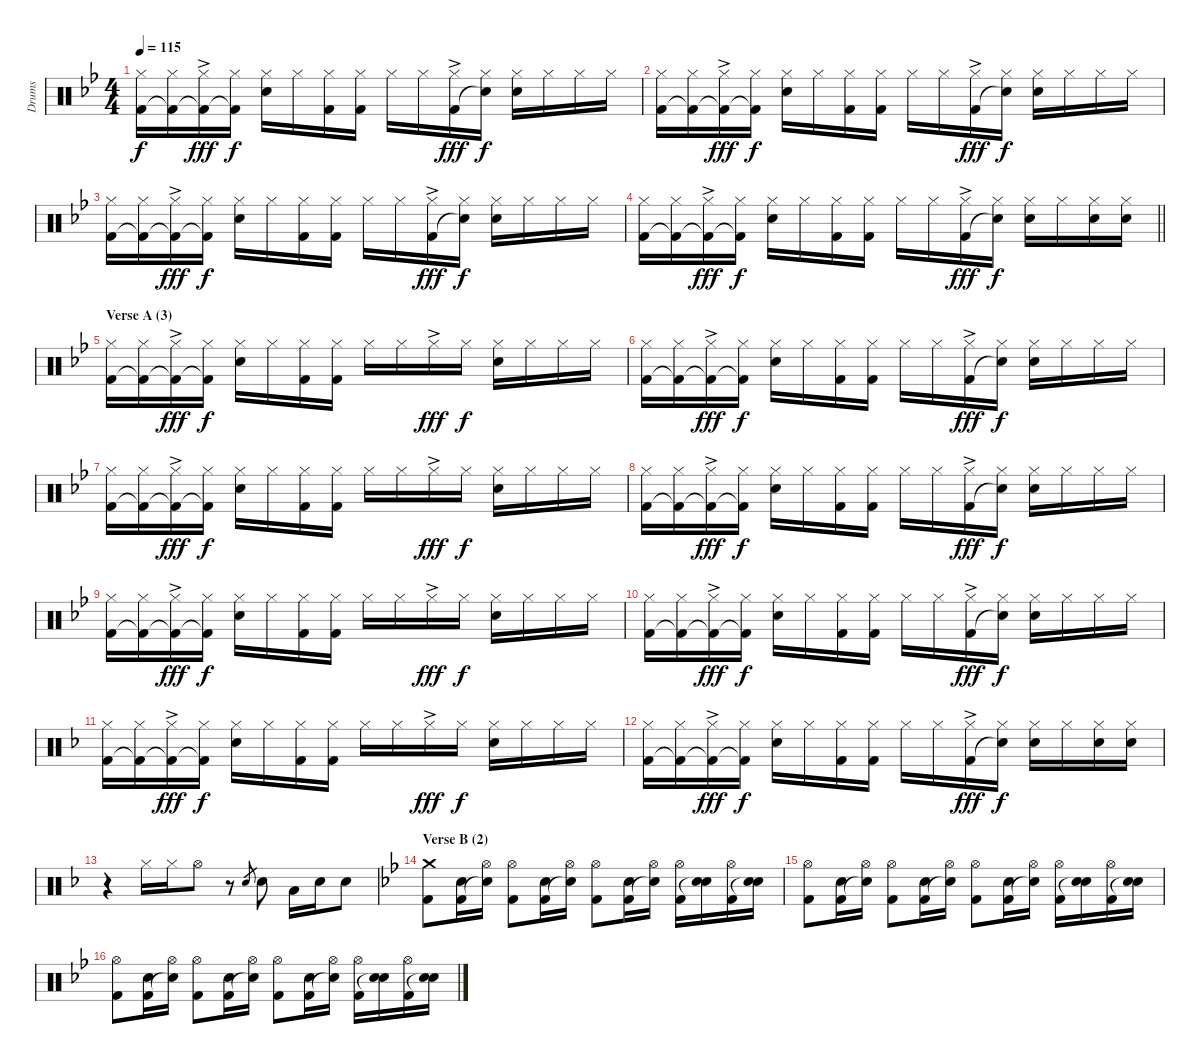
\track ("Drums" "Drums") {instrument percussion}
\staff {score}
\articulation defaults
\ts (4 4)
\tempo 115
\clef neutral
\ks bb
("Hi-Hat (closed)" "Kick (hit) 2").16{dy f} ("Hi-Hat (closed)" "Kick (hit) 2"{t}).16 ("Hi-Hat (closed)"{ac} "Kick (hit) 2"{t}).16{dy fff} ("Hi-Hat (closed)" "Kick (hit) 2"{t}).16{dy f} ("Hi-Hat (closed)" "Electric Snare (hit)").16 "Hi-Hat (closed)".16 ("Hi-Hat (closed)" "Kick (hit) 2").16 ("Hi-Hat (closed)" "Kick (hit) 2").16 "Hi-Hat (closed)".16 "Hi-Hat (closed)".16 ("Hi-Hat (closed)"{ac} "Kick (hit) 2").16{dy fff} ("Hi-Hat (closed)" "Snare (hit)"{t}).16{dy f} ("Hi-Hat (closed)" "Electric Snare (hit)").16 "Hi-Hat (closed)".16 "Hi-Hat (closed)".16 "Hi-Hat (closed)".16 |
("Hi-Hat (closed)" "Kick (hit) 2").16 ("Hi-Hat (closed)" "Kick (hit) 2"{t}).16 ("Hi-Hat (closed)"{ac} "Kick (hit) 2"{t}).16{dy fff} ("Hi-Hat (closed)" "Kick (hit) 2"{t}).16{dy f} ("Hi-Hat (closed)" "Electric Snare (hit)").16 "Hi-Hat (closed)".16 ("Hi-Hat (closed)" "Kick (hit) 2").16 ("Hi-Hat (closed)" "Kick (hit) 2").16 "Hi-Hat (closed)".16 "Hi-Hat (closed)".16 ("Hi-Hat (closed)"{ac} "Kick (hit) 2").16{dy fff} ("Hi-Hat (closed)" "Snare (hit)"{t}).16{dy f} ("Hi-Hat (closed)" "Electric Snare (hit)").16 "Hi-Hat (closed)".16 "Hi-Hat (closed)".16 "Hi-Hat (closed)".16 |
("Hi-Hat (closed)" "Kick (hit) 2").16 ("Hi-Hat (closed)" "Kick (hit) 2"{t}).16 ("Hi-Hat (closed)"{ac} "Kick (hit) 2"{t}).16{dy fff} ("Hi-Hat (closed)" "Kick (hit) 2"{t}).16{dy f} ("Hi-Hat (closed)" "Electric Snare (hit)").16 "Hi-Hat (closed)".16 ("Hi-Hat (closed)" "Kick (hit) 2").16 ("Hi-Hat (closed)" "Kick (hit) 2").16 "Hi-Hat (closed)".16 "Hi-Hat (closed)".16 ("Hi-Hat (closed)"{ac} "Kick (hit) 2").16{dy fff} ("Hi-Hat (closed)" "Snare (hit)"{t}).16{dy f} ("Hi-Hat (closed)" "Electric Snare (hit)").16 "Hi-Hat (closed)".16 "Hi-Hat (closed)".16 "Hi-Hat (closed)".16 |
\barLineRight lightlight
("Hi-Hat (closed)" "Kick (hit) 2").16 ("Hi-Hat (closed)" "Kick (hit) 2"{t}).16 ("Hi-Hat (closed)"{ac} "Kick (hit) 2"{t}).16{dy fff} ("Hi-Hat (closed)" "Kick (hit) 2"{t}).16{dy f} ("Hi-Hat (closed)" "Electric Snare (hit)").16 "Hi-Hat (closed)".16 ("Hi-Hat (closed)" "Kick (hit) 2").16 ("Hi-Hat (closed)" "Kick (hit) 2").16 "Hi-Hat (closed)".16 "Hi-Hat (closed)".16 ("Hi-Hat (closed)"{ac} "Kick (hit) 2").16{dy fff} ("Hi-Hat (closed)" "Snare (hit)"{t}).16{dy f} ("Hi-Hat (closed)" "Electric Snare (hit)").16 "Hi-Hat (closed)".16 ("Hi-Hat (closed)" "Electric Snare (hit)").16 ("Hi-Hat (closed)" "Electric Snare (hit)").16 |
\section ("" "Verse A (3)")
("Hi-Hat (closed)" "Kick (hit) 2").16 ("Hi-Hat (closed)" "Kick (hit) 2"{t}).16 ("Hi-Hat (closed)"{ac} "Kick (hit) 2"{t}).16{dy fff} ("Hi-Hat (closed)" "Kick (hit) 2"{t}).16{dy f} ("Hi-Hat (closed)" "Electric Snare (hit)").16 "Hi-Hat (closed)".16 ("Hi-Hat (closed)" "Kick (hit) 2").16 ("Hi-Hat (closed)" "Kick (hit) 2").16 "Hi-Hat (closed)".16 "Hi-Hat (closed)".16 "Hi-Hat (closed)"{ac}.16{dy fff} "Hi-Hat (closed)".16{dy f} ("Hi-Hat (closed)" "Electric Snare (hit)").16 "Hi-Hat (closed)".16 "Hi-Hat (closed)".16 "Hi-Hat (closed)".16 |
("Hi-Hat (closed)" "Kick (hit) 2").16 ("Hi-Hat (closed)" "Kick (hit) 2"{t}).16 ("Hi-Hat (closed)"{ac} "Kick (hit) 2"{t}).16{dy fff} ("Hi-Hat (closed)" "Kick (hit) 2"{t}).16{dy f} ("Hi-Hat (closed)" "Electric Snare (hit)").16 "Hi-Hat (closed)".16 ("Hi-Hat (closed)" "Kick (hit) 2").16 ("Hi-Hat (closed)" "Kick (hit) 2").16 "Hi-Hat (closed)".16 "Hi-Hat (closed)".16 ("Hi-Hat (closed)"{ac} "Kick (hit) 2").16{dy fff} ("Hi-Hat (closed)" "Snare (hit)"{t}).16{dy f} ("Hi-Hat (closed)" "Electric Snare (hit)").16 "Hi-Hat (closed)".16 "Hi-Hat (closed)".16 "Hi-Hat (closed)".16 |
("Hi-Hat (closed)" "Kick (hit) 2").16 ("Hi-Hat (closed)" "Kick (hit) 2"{t}).16 ("Hi-Hat (closed)"{ac} "Kick (hit) 2"{t}).16{dy fff} ("Hi-Hat (closed)" "Kick (hit) 2"{t}).16{dy f} ("Hi-Hat (closed)" "Electric Snare (hit)").16 "Hi-Hat (closed)".16 ("Hi-Hat (closed)" "Kick (hit) 2").16 ("Hi-Hat (closed)" "Kick (hit) 2").16 "Hi-Hat (closed)".16 "Hi-Hat (closed)".16 "Hi-Hat (closed)"{ac}.16{dy fff} "Hi-Hat (closed)".16{dy f} ("Hi-Hat (closed)" "Electric Snare (hit)").16 "Hi-Hat (closed)".16 "Hi-Hat (closed)".16 "Hi-Hat (closed)".16 |
("Hi-Hat (closed)" "Kick (hit) 2").16 ("Hi-Hat (closed)" "Kick (hit) 2"{t}).16 ("Hi-Hat (closed)"{ac} "Kick (hit) 2"{t}).16{dy fff} ("Hi-Hat (closed)" "Kick (hit) 2"{t}).16{dy f} ("Hi-Hat (closed)" "Electric Snare (hit)").16 "Hi-Hat (closed)".16 ("Hi-Hat (closed)" "Kick (hit) 2").16 ("Hi-Hat (closed)" "Kick (hit) 2").16 "Hi-Hat (closed)".16 "Hi-Hat (closed)".16 ("Hi-Hat (closed)"{ac} "Kick (hit) 2").16{dy fff} ("Hi-Hat (closed)" "Snare (hit)"{t}).16{dy f} ("Hi-Hat (closed)" "Electric Snare (hit)").16 "Hi-Hat (closed)".16 "Hi-Hat (closed)".16 "Hi-Hat (closed)".16 |
("Hi-Hat (closed)" "Kick (hit) 2").16 ("Hi-Hat (closed)" "Kick (hit) 2"{t}).16 ("Hi-Hat (closed)"{ac} "Kick (hit) 2"{t}).16{dy fff} ("Hi-Hat (closed)" "Kick (hit) 2"{t}).16{dy f} ("Hi-Hat (closed)" "Electric Snare (hit)").16 "Hi-Hat (closed)".16 ("Hi-Hat (closed)" "Kick (hit) 2").16 ("Hi-Hat (closed)" "Kick (hit) 2").16 "Hi-Hat (closed)".16 "Hi-Hat (closed)".16 "Hi-Hat (closed)"{ac}.16{dy fff} "Hi-Hat (closed)".16{dy f} ("Hi-Hat (closed)" "Electric Snare (hit)").16 "Hi-Hat (closed)".16 "Hi-Hat (closed)".16 "Hi-Hat (closed)".16 |
("Hi-Hat (closed)" "Kick (hit) 2").16 ("Hi-Hat (closed)" "Kick (hit) 2"{t}).16 ("Hi-Hat (closed)"{ac} "Kick (hit) 2"{t}).16{dy fff} ("Hi-Hat (closed)" "Kick (hit) 2"{t}).16{dy f} ("Hi-Hat (closed)" "Electric Snare (hit)").16 "Hi-Hat (closed)".16 ("Hi-Hat (closed)" "Kick (hit) 2").16 ("Hi-Hat (closed)" "Kick (hit) 2").16 "Hi-Hat (closed)".16 "Hi-Hat (closed)".16 ("Hi-Hat (closed)"{ac} "Kick (hit) 2").16{dy fff} ("Hi-Hat (closed)" "Snare (hit)"{t}).16{dy f} ("Hi-Hat (closed)" "Electric Snare (hit)").16 "Hi-Hat (closed)".16 "Hi-Hat (closed)".16 "Hi-Hat (closed)".16 |
\ks f
("Hi-Hat (closed)" "Kick (hit) 2").16 ("Hi-Hat (closed)" "Kick (hit) 2"{t}).16 ("Hi-Hat (closed)"{ac} "Kick (hit) 2"{t}).16{dy fff} ("Hi-Hat (closed)" "Kick (hit) 2"{t}).16{dy f} ("Hi-Hat (closed)" "Electric Snare (hit)").16 "Hi-Hat (closed)".16 ("Hi-Hat (closed)" "Kick (hit) 2").16 ("Hi-Hat (closed)" "Kick (hit) 2").16 "Hi-Hat (closed)".16 "Hi-Hat (closed)".16 "Hi-Hat (closed)"{ac}.16{dy fff} "Hi-Hat (closed)".16{dy f} ("Hi-Hat (closed)" "Electric Snare (hit)").16 "Hi-Hat (closed)".16 "Hi-Hat (closed)".16 "Hi-Hat (closed)".16 |
("Hi-Hat (closed)" "Kick (hit) 2").16 ("Hi-Hat (closed)" "Kick (hit) 2"{t}).16 ("Hi-Hat (closed)"{ac} "Kick (hit) 2"{t}).16{dy fff} ("Hi-Hat (closed)" "Kick (hit) 2"{t}).16{dy f} ("Hi-Hat (closed)" "Electric Snare (hit)").16 "Hi-Hat (closed)".16 ("Hi-Hat (closed)" "Kick (hit) 2").16 ("Hi-Hat (closed)" "Kick (hit) 2").16 "Hi-Hat (closed)".16 "Hi-Hat (closed)".16 ("Hi-Hat (closed)"{ac} "Kick (hit) 2").16{dy fff} ("Hi-Hat (closed)" "Snare (hit)"{t}).16{dy f} ("Hi-Hat (closed)" "Electric Snare (hit)").16 "Hi-Hat (closed)".16 ("Hi-Hat (closed)" "Electric Snare (hit)").16 ("Hi-Hat (closed)" "Electric Snare (hit)").16 |
r.4 "Hi-Hat (closed)".16 "Hi-Hat (closed)".16 "Hi-Hat (open)".8 r.8 "Electric Snare (hit)".8{gr} "Electric Snare (hit)".8 "Low Tom (hit)".16 "Electric Snare (hit)".16 "Electric Snare (hit)".8 |
\section ("" "Verse B (2)")
\ks bb
("Crash medium (hit)" "Kick (hit) 2").8 ("Electric Snare (hit)" "Kick (hit) 2").16 ("Hi-Hat (open)" "Snare (hit)"{t}).16 ("Hi-Hat (open)" "Kick (hit) 2").8 ("Electric Snare (hit)" "Kick (hit) 2").16 ("Hi-Hat (open)" "Snare (hit)"{t}).16 ("Hi-Hat (open)" "Kick (hit) 2").8 ("Electric Snare (hit)" "Kick (hit) 2").16 ("Hi-Hat (open)" "Snare (hit)"{t}).16 ("Hi-Hat (open)" "Kick (hit) 2").16 ("Electric Snare (hit)" "Snare (hit)"{t}).16 ("Hi-Hat (open)" "Kick (hit) 2").16 ("Electric Snare (hit)" "Snare (hit)"{t}).16 |
("Hi-Hat (open)" "Kick (hit) 2").8 ("Electric Snare (hit)" "Kick (hit) 2").16 ("Hi-Hat (open)" "Snare (hit)"{t}).16 ("Hi-Hat (open)" "Kick (hit) 2").8 ("Electric Snare (hit)" "Kick (hit) 2").16 ("Hi-Hat (open)" "Snare (hit)"{t}).16 ("Hi-Hat (open)" "Kick (hit) 2").8 ("Electric Snare (hit)" "Kick (hit) 2").16 ("Hi-Hat (open)" "Snare (hit)"{t}).16 ("Hi-Hat (open)" "Kick (hit) 2").16 ("Electric Snare (hit)" "Snare (hit)"{t}).16 ("Hi-Hat (open)" "Kick (hit) 2").16 ("Electric Snare (hit)" "Snare (hit)"{t}).16 |
("Hi-Hat (open)" "Kick (hit) 2").8 ("Electric Snare (hit)" "Kick (hit) 2").16 ("Hi-Hat (open)" "Snare (hit)"{t}).16 ("Hi-Hat (open)" "Kick (hit) 2").8 ("Electric Snare (hit)" "Kick (hit) 2").16 ("Hi-Hat (open)" "Snare (hit)"{t}).16 ("Hi-Hat (open)" "Kick (hit) 2").8 ("Electric Snare (hit)" "Kick (hit) 2").16 ("Hi-Hat (open)" "Snare (hit)"{t}).16 ("Hi-Hat (open)" "Kick (hit) 2").16 ("Electric Snare (hit)" "Snare (hit)"{t}).16 ("Hi-Hat (open)" "Kick (hit) 2").16 ("Electric Snare (hit)" "Snare (hit)"{t}).16
